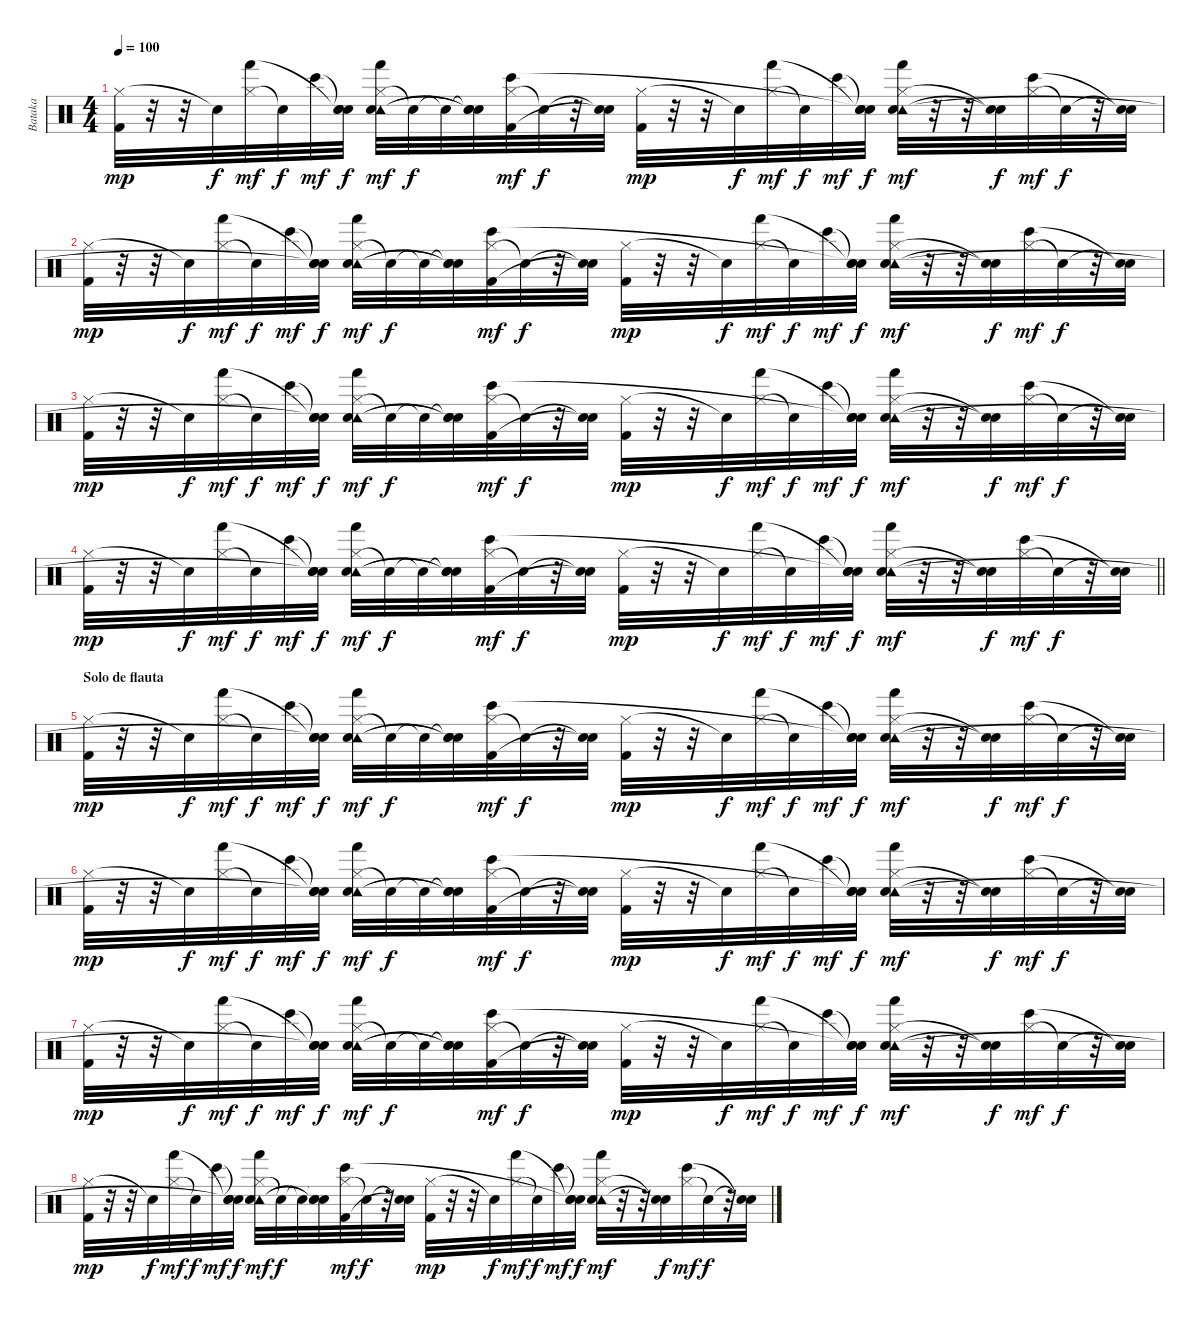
\track ("Bataka" "Bataka") {instrument percussion}
\staff {score}
\articulation defaults
\ts (4 4)
\tempo 100
\clef neutral
\ks c
("Hi-Hat (closed)" "Kick (hit) 2").32{dy mp} r.32 r.32 "Snare (hit)"{t}.32{dy f} ("Hi-Hat (closed)" "Hand (hit)").32{dy mf} "Snare (hit)"{t}.32{dy f} "Bongo High (hit)".32{dy mf} ("Snare (hit)"{t} "Snare (hit)"{t} "Snare (hit)"{t}).32{dy f} ("Hi-Hat (closed)" "Tambourine (hit)" "Electric Snare (hit)" "Hand (hit)").32{dy mf} "Snare (hit)"{t}.32{dy f} "Snare (hit)"{t}.32 ("Snare (hit)"{t} "Snare (hit)"{t} "Snare (hit)"{t}).32 ("Hi-Hat (closed)" "Kick (hit) 2" "Bongo High (hit)").32{dy mf} "Snare (hit)"{t}.32{dy f} r.32 ("Snare (hit)"{t} "Snare (hit)"{t}).32 ("Hi-Hat (closed)" "Kick (hit) 2").32{dy mp} r.32 r.32 "Snare (hit)"{t}.32{dy f} ("Hi-Hat (closed)" "Hand (hit)").32{dy mf} "Snare (hit)"{t}.32{dy f} "Bongo High (hit)".32{dy mf} ("Snare (hit)"{t} "Snare (hit)"{t} "Snare (hit)"{t}).32{dy f} ("Hi-Hat (closed)" "Tambourine (hit)" "Electric Snare (hit)" "Hand (hit)").32{dy mf} r.32 r.32 ("Snare (hit)"{t} "Snare (hit)"{t}).32{dy f} ("Hi-Hat (closed)" "Bongo High (hit)").32{dy mf} "Snare (hit)"{t}.32{dy f} r.32 ("Snare (hit)"{t} "Snare (hit)"{t}).32 |
("Hi-Hat (closed)" "Kick (hit) 2").32{dy mp} r.32 r.32 "Snare (hit)"{t}.32{dy f} ("Hi-Hat (closed)" "Hand (hit)").32{dy mf} "Snare (hit)"{t}.32{dy f} "Bongo High (hit)".32{dy mf} ("Snare (hit)"{t} "Snare (hit)"{t} "Snare (hit)"{t}).32{dy f} ("Hi-Hat (closed)" "Tambourine (hit)" "Electric Snare (hit)" "Hand (hit)").32{dy mf} "Snare (hit)"{t}.32{dy f} "Snare (hit)"{t}.32 ("Snare (hit)"{t} "Snare (hit)"{t} "Snare (hit)"{t}).32 ("Hi-Hat (closed)" "Kick (hit) 2" "Bongo High (hit)").32{dy mf} "Snare (hit)"{t}.32{dy f} r.32 ("Snare (hit)"{t} "Snare (hit)"{t}).32 ("Hi-Hat (closed)" "Kick (hit) 2").32{dy mp} r.32 r.32 "Snare (hit)"{t}.32{dy f} ("Hi-Hat (closed)" "Hand (hit)").32{dy mf} "Snare (hit)"{t}.32{dy f} "Bongo High (hit)".32{dy mf} ("Snare (hit)"{t} "Snare (hit)"{t} "Snare (hit)"{t}).32{dy f} ("Hi-Hat (closed)" "Tambourine (hit)" "Electric Snare (hit)" "Hand (hit)").32{dy mf} r.32 r.32 ("Snare (hit)"{t} "Snare (hit)"{t}).32{dy f} ("Hi-Hat (closed)" "Bongo High (hit)").32{dy mf} "Snare (hit)"{t}.32{dy f} r.32 ("Snare (hit)"{t} "Snare (hit)"{t}).32 |
("Hi-Hat (closed)" "Kick (hit) 2").32{dy mp} r.32 r.32 "Snare (hit)"{t}.32{dy f} ("Hi-Hat (closed)" "Hand (hit)").32{dy mf} "Snare (hit)"{t}.32{dy f} "Bongo High (hit)".32{dy mf} ("Snare (hit)"{t} "Snare (hit)"{t} "Snare (hit)"{t}).32{dy f} ("Hi-Hat (closed)" "Tambourine (hit)" "Electric Snare (hit)" "Hand (hit)").32{dy mf} "Snare (hit)"{t}.32{dy f} "Snare (hit)"{t}.32 ("Snare (hit)"{t} "Snare (hit)"{t} "Snare (hit)"{t}).32 ("Hi-Hat (closed)" "Kick (hit) 2" "Bongo High (hit)").32{dy mf} "Snare (hit)"{t}.32{dy f} r.32 ("Snare (hit)"{t} "Snare (hit)"{t}).32 ("Hi-Hat (closed)" "Kick (hit) 2").32{dy mp} r.32 r.32 "Snare (hit)"{t}.32{dy f} ("Hi-Hat (closed)" "Hand (hit)").32{dy mf} "Snare (hit)"{t}.32{dy f} "Bongo High (hit)".32{dy mf} ("Snare (hit)"{t} "Snare (hit)"{t} "Snare (hit)"{t}).32{dy f} ("Hi-Hat (closed)" "Tambourine (hit)" "Electric Snare (hit)" "Hand (hit)").32{dy mf} r.32 r.32 ("Snare (hit)"{t} "Snare (hit)"{t}).32{dy f} ("Hi-Hat (closed)" "Bongo High (hit)").32{dy mf} "Snare (hit)"{t}.32{dy f} r.32 ("Snare (hit)"{t} "Snare (hit)"{t}).32 |
\barLineRight lightlight
("Hi-Hat (closed)" "Kick (hit) 2").32{dy mp} r.32 r.32 "Snare (hit)"{t}.32{dy f} ("Hi-Hat (closed)" "Hand (hit)").32{dy mf} "Snare (hit)"{t}.32{dy f} "Bongo High (hit)".32{dy mf} ("Snare (hit)"{t} "Snare (hit)"{t} "Snare (hit)"{t}).32{dy f} ("Hi-Hat (closed)" "Tambourine (hit)" "Electric Snare (hit)" "Hand (hit)").32{dy mf} "Snare (hit)"{t}.32{dy f} "Snare (hit)"{t}.32 ("Snare (hit)"{t} "Snare (hit)"{t} "Snare (hit)"{t}).32 ("Hi-Hat (closed)" "Kick (hit) 2" "Bongo High (hit)").32{dy mf} "Snare (hit)"{t}.32{dy f} r.32 ("Snare (hit)"{t} "Snare (hit)"{t}).32 ("Hi-Hat (closed)" "Kick (hit) 2").32{dy mp} r.32 r.32 "Snare (hit)"{t}.32{dy f} ("Hi-Hat (closed)" "Hand (hit)").32{dy mf} "Snare (hit)"{t}.32{dy f} "Bongo High (hit)".32{dy mf} ("Snare (hit)"{t} "Snare (hit)"{t} "Snare (hit)"{t}).32{dy f} ("Hi-Hat (closed)" "Tambourine (hit)" "Electric Snare (hit)" "Hand (hit)").32{dy mf} r.32 r.32 ("Snare (hit)"{t} "Snare (hit)"{t}).32{dy f} ("Hi-Hat (closed)" "Bongo High (hit)").32{dy mf} "Snare (hit)"{t}.32{dy f} r.32 ("Snare (hit)"{t} "Snare (hit)"{t}).32 |
\section ("" "Solo de flauta")
("Hi-Hat (closed)" "Kick (hit) 2").32{dy mp} r.32 r.32 "Snare (hit)"{t}.32{dy f} ("Hi-Hat (closed)" "Hand (hit)").32{dy mf} "Snare (hit)"{t}.32{dy f} "Bongo High (hit)".32{dy mf} ("Snare (hit)"{t} "Snare (hit)"{t} "Snare (hit)"{t}).32{dy f} ("Hi-Hat (closed)" "Tambourine (hit)" "Electric Snare (hit)" "Hand (hit)").32{dy mf} "Snare (hit)"{t}.32{dy f} "Snare (hit)"{t}.32 ("Snare (hit)"{t} "Snare (hit)"{t} "Snare (hit)"{t}).32 ("Hi-Hat (closed)" "Kick (hit) 2" "Bongo High (hit)").32{dy mf} "Snare (hit)"{t}.32{dy f} r.32 ("Snare (hit)"{t} "Snare (hit)"{t}).32 ("Hi-Hat (closed)" "Kick (hit) 2").32{dy mp} r.32 r.32 "Snare (hit)"{t}.32{dy f} ("Hi-Hat (closed)" "Hand (hit)").32{dy mf} "Snare (hit)"{t}.32{dy f} "Bongo High (hit)".32{dy mf} ("Snare (hit)"{t} "Snare (hit)"{t} "Snare (hit)"{t}).32{dy f} ("Hi-Hat (closed)" "Tambourine (hit)" "Electric Snare (hit)" "Hand (hit)").32{dy mf} r.32 r.32 ("Snare (hit)"{t} "Snare (hit)"{t}).32{dy f} ("Hi-Hat (closed)" "Bongo High (hit)").32{dy mf} "Snare (hit)"{t}.32{dy f} r.32 ("Snare (hit)"{t} "Snare (hit)"{t}).32 |
("Hi-Hat (closed)" "Kick (hit) 2").32{dy mp} r.32 r.32 "Snare (hit)"{t}.32{dy f} ("Hi-Hat (closed)" "Hand (hit)").32{dy mf} "Snare (hit)"{t}.32{dy f} "Bongo High (hit)".32{dy mf} ("Snare (hit)"{t} "Snare (hit)"{t} "Snare (hit)"{t}).32{dy f} ("Hi-Hat (closed)" "Tambourine (hit)" "Electric Snare (hit)" "Hand (hit)").32{dy mf} "Snare (hit)"{t}.32{dy f} "Snare (hit)"{t}.32 ("Snare (hit)"{t} "Snare (hit)"{t} "Snare (hit)"{t}).32 ("Hi-Hat (closed)" "Kick (hit) 2" "Bongo High (hit)").32{dy mf} "Snare (hit)"{t}.32{dy f} r.32 ("Snare (hit)"{t} "Snare (hit)"{t}).32 ("Hi-Hat (closed)" "Kick (hit) 2").32{dy mp} r.32 r.32 "Snare (hit)"{t}.32{dy f} ("Hi-Hat (closed)" "Hand (hit)").32{dy mf} "Snare (hit)"{t}.32{dy f} "Bongo High (hit)".32{dy mf} ("Snare (hit)"{t} "Snare (hit)"{t} "Snare (hit)"{t}).32{dy f} ("Hi-Hat (closed)" "Tambourine (hit)" "Electric Snare (hit)" "Hand (hit)").32{dy mf} r.32 r.32 ("Snare (hit)"{t} "Snare (hit)"{t}).32{dy f} ("Hi-Hat (closed)" "Bongo High (hit)").32{dy mf} "Snare (hit)"{t}.32{dy f} r.32 ("Snare (hit)"{t} "Snare (hit)"{t}).32 |
("Hi-Hat (closed)" "Kick (hit) 2").32{dy mp} r.32 r.32 "Snare (hit)"{t}.32{dy f} ("Hi-Hat (closed)" "Hand (hit)").32{dy mf} "Snare (hit)"{t}.32{dy f} "Bongo High (hit)".32{dy mf} ("Snare (hit)"{t} "Snare (hit)"{t} "Snare (hit)"{t}).32{dy f} ("Hi-Hat (closed)" "Tambourine (hit)" "Electric Snare (hit)" "Hand (hit)").32{dy mf} "Snare (hit)"{t}.32{dy f} "Snare (hit)"{t}.32 ("Snare (hit)"{t} "Snare (hit)"{t} "Snare (hit)"{t}).32 ("Hi-Hat (closed)" "Kick (hit) 2" "Bongo High (hit)").32{dy mf} "Snare (hit)"{t}.32{dy f} r.32 ("Snare (hit)"{t} "Snare (hit)"{t}).32 ("Hi-Hat (closed)" "Kick (hit) 2").32{dy mp} r.32 r.32 "Snare (hit)"{t}.32{dy f} ("Hi-Hat (closed)" "Hand (hit)").32{dy mf} "Snare (hit)"{t}.32{dy f} "Bongo High (hit)".32{dy mf} ("Snare (hit)"{t} "Snare (hit)"{t} "Snare (hit)"{t}).32{dy f} ("Hi-Hat (closed)" "Tambourine (hit)" "Electric Snare (hit)" "Hand (hit)").32{dy mf} r.32 r.32 ("Snare (hit)"{t} "Snare (hit)"{t}).32{dy f} ("Hi-Hat (closed)" "Bongo High (hit)").32{dy mf} "Snare (hit)"{t}.32{dy f} r.32 ("Snare (hit)"{t} "Snare (hit)"{t}).32 |
("Hi-Hat (closed)" "Kick (hit) 2").32{dy mp} r.32 r.32 "Snare (hit)"{t}.32{dy f} ("Hi-Hat (closed)" "Hand (hit)").32{dy mf} "Snare (hit)"{t}.32{dy f} "Bongo High (hit)".32{dy mf} ("Snare (hit)"{t} "Snare (hit)"{t} "Snare (hit)"{t}).32{dy f} ("Hi-Hat (closed)" "Tambourine (hit)" "Electric Snare (hit)" "Hand (hit)").32{dy mf} "Snare (hit)"{t}.32{dy f} "Snare (hit)"{t}.32 ("Snare (hit)"{t} "Snare (hit)"{t} "Snare (hit)"{t}).32 ("Hi-Hat (closed)" "Kick (hit) 2" "Bongo High (hit)").32{dy mf} "Snare (hit)"{t}.32{dy f} r.32 ("Snare (hit)"{t} "Snare (hit)"{t}).32 ("Hi-Hat (closed)" "Kick (hit) 2").32{dy mp} r.32 r.32 "Snare (hit)"{t}.32{dy f} ("Hi-Hat (closed)" "Hand (hit)").32{dy mf} "Snare (hit)"{t}.32{dy f} "Bongo High (hit)".32{dy mf} ("Snare (hit)"{t} "Snare (hit)"{t} "Snare (hit)"{t}).32{dy f} ("Hi-Hat (closed)" "Tambourine (hit)" "Electric Snare (hit)" "Hand (hit)").32{dy mf} r.32 r.32 ("Snare (hit)"{t} "Snare (hit)"{t}).32{dy f} ("Hi-Hat (closed)" "Bongo High (hit)").32{dy mf} "Snare (hit)"{t}.32{dy f} r.32 ("Snare (hit)"{t} "Snare (hit)"{t}).32
